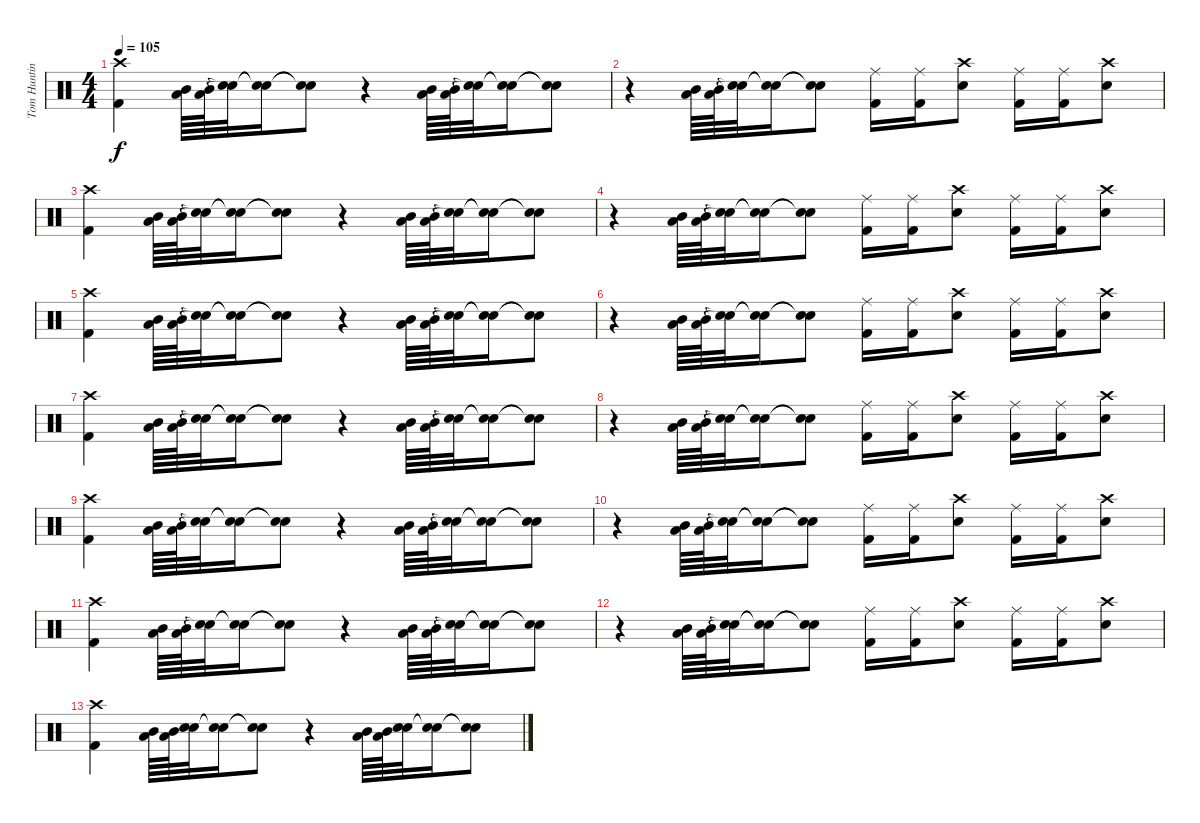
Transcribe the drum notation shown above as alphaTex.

\track ("Tom Hunting" "Tom Huntin") {instrument percussion}
\staff {score}
\articulation defaults
\ts (4 4)
\tempo 105
\clef neutral
\ks c
("Kick (hit) 2" "Crash high (hit)").4{dy f} ("Low Tom (hit)" "Mid Tom (hit)").64 ("Low Tom (hit)" "Mid Tom (hit)").64 ("Snare (hit)"{t} "Snare (hit)"{t}).32 ("Snare (hit)"{t} "Snare (hit)"{t}).16 ("Snare (hit)"{t} "Snare (hit)"{t}).8 r.4 ("Low Tom (hit)" "Mid Tom (hit)").64 ("Low Tom (hit)" "Mid Tom (hit)").64 ("Snare (hit)"{t} "Snare (hit)"{t}).32 ("Snare (hit)"{t} "Snare (hit)"{t}).16 ("Snare (hit)"{t} "Snare (hit)"{t}).8 |
r.4 ("Low Tom (hit)" "Mid Tom (hit)").64 ("Low Tom (hit)" "Mid Tom (hit)").64 ("Snare (hit)"{t} "Snare (hit)"{t}).32 ("Snare (hit)"{t} "Snare (hit)"{t}).16 ("Snare (hit)"{t} "Snare (hit)"{t}).8 ("Kick (hit) 2" "Ride (middle)").16 ("Kick (hit) 2" "Ride (middle)").16 ("Crash high (hit)" "Snare (hit) 2").8 ("Kick (hit) 2" "Ride (middle)").16 ("Kick (hit) 2" "Ride (middle)").16 ("Crash high (hit)" "Snare (hit) 2").8 |
("Kick (hit) 2" "Crash high (hit)").4 ("Low Tom (hit)" "Mid Tom (hit)").64 ("Low Tom (hit)" "Mid Tom (hit)").64 ("Snare (hit)"{t} "Snare (hit)"{t}).32 ("Snare (hit)"{t} "Snare (hit)"{t}).16 ("Snare (hit)"{t} "Snare (hit)"{t}).8 r.4 ("Low Tom (hit)" "Mid Tom (hit)").64 ("Low Tom (hit)" "Mid Tom (hit)").64 ("Snare (hit)"{t} "Snare (hit)"{t}).32 ("Snare (hit)"{t} "Snare (hit)"{t}).16 ("Snare (hit)"{t} "Snare (hit)"{t}).8 |
r.4 ("Low Tom (hit)" "Mid Tom (hit)").64 ("Low Tom (hit)" "Mid Tom (hit)").64 ("Snare (hit)"{t} "Snare (hit)"{t}).32 ("Snare (hit)"{t} "Snare (hit)"{t}).16 ("Snare (hit)"{t} "Snare (hit)"{t}).8 ("Kick (hit) 2" "Ride (middle)").16 ("Kick (hit) 2" "Ride (middle)").16 ("Crash high (hit)" "Snare (hit) 2").8 ("Kick (hit) 2" "Ride (middle)").16 ("Kick (hit) 2" "Ride (middle)").16 ("Crash high (hit)" "Snare (hit) 2").8 |
("Kick (hit) 2" "Crash high (hit)").4 ("Low Tom (hit)" "Mid Tom (hit)").64 ("Low Tom (hit)" "Mid Tom (hit)").64 ("Snare (hit)"{t} "Snare (hit)"{t}).32 ("Snare (hit)"{t} "Snare (hit)"{t}).16 ("Snare (hit)"{t} "Snare (hit)"{t}).8 r.4 ("Low Tom (hit)" "Mid Tom (hit)").64 ("Low Tom (hit)" "Mid Tom (hit)").64 ("Snare (hit)"{t} "Snare (hit)"{t}).32 ("Snare (hit)"{t} "Snare (hit)"{t}).16 ("Snare (hit)"{t} "Snare (hit)"{t}).8 |
r.4 ("Low Tom (hit)" "Mid Tom (hit)").64 ("Low Tom (hit)" "Mid Tom (hit)").64 ("Snare (hit)"{t} "Snare (hit)"{t}).32 ("Snare (hit)"{t} "Snare (hit)"{t}).16 ("Snare (hit)"{t} "Snare (hit)"{t}).8 ("Kick (hit) 2" "Ride (middle)").16 ("Kick (hit) 2" "Ride (middle)").16 ("Crash high (hit)" "Snare (hit) 2").8 ("Kick (hit) 2" "Ride (middle)").16 ("Kick (hit) 2" "Ride (middle)").16 ("Crash high (hit)" "Snare (hit) 2").8 |
("Kick (hit) 2" "Crash high (hit)").4 ("Low Tom (hit)" "Mid Tom (hit)").64 ("Low Tom (hit)" "Mid Tom (hit)").64 ("Snare (hit)"{t} "Snare (hit)"{t}).32 ("Snare (hit)"{t} "Snare (hit)"{t}).16 ("Snare (hit)"{t} "Snare (hit)"{t}).8 r.4 ("Low Tom (hit)" "Mid Tom (hit)").64 ("Low Tom (hit)" "Mid Tom (hit)").64 ("Snare (hit)"{t} "Snare (hit)"{t}).32 ("Snare (hit)"{t} "Snare (hit)"{t}).16 ("Snare (hit)"{t} "Snare (hit)"{t}).8 |
r.4 ("Low Tom (hit)" "Mid Tom (hit)").64 ("Low Tom (hit)" "Mid Tom (hit)").64 ("Snare (hit)"{t} "Snare (hit)"{t}).32 ("Snare (hit)"{t} "Snare (hit)"{t}).16 ("Snare (hit)"{t} "Snare (hit)"{t}).8 ("Kick (hit) 2" "Ride (middle)").16 ("Kick (hit) 2" "Ride (middle)").16 ("Crash high (hit)" "Snare (hit) 2").8 ("Kick (hit) 2" "Ride (middle)").16 ("Kick (hit) 2" "Ride (middle)").16 ("Crash high (hit)" "Snare (hit) 2").8 |
("Kick (hit) 2" "Crash high (hit)").4 ("Low Tom (hit)" "Mid Tom (hit)").64 ("Low Tom (hit)" "Mid Tom (hit)").64 ("Snare (hit)"{t} "Snare (hit)"{t}).32 ("Snare (hit)"{t} "Snare (hit)"{t}).16 ("Snare (hit)"{t} "Snare (hit)"{t}).8 r.4 ("Low Tom (hit)" "Mid Tom (hit)").64 ("Low Tom (hit)" "Mid Tom (hit)").64 ("Snare (hit)"{t} "Snare (hit)"{t}).32 ("Snare (hit)"{t} "Snare (hit)"{t}).16 ("Snare (hit)"{t} "Snare (hit)"{t}).8 |
r.4 ("Low Tom (hit)" "Mid Tom (hit)").64 ("Low Tom (hit)" "Mid Tom (hit)").64 ("Snare (hit)"{t} "Snare (hit)"{t}).32 ("Snare (hit)"{t} "Snare (hit)"{t}).16 ("Snare (hit)"{t} "Snare (hit)"{t}).8 ("Kick (hit) 2" "Ride (middle)").16 ("Kick (hit) 2" "Ride (middle)").16 ("Crash high (hit)" "Snare (hit) 2").8 ("Kick (hit) 2" "Ride (middle)").16 ("Kick (hit) 2" "Ride (middle)").16 ("Crash high (hit)" "Snare (hit) 2").8 |
("Kick (hit) 2" "Crash high (hit)").4 ("Low Tom (hit)" "Mid Tom (hit)").64 ("Low Tom (hit)" "Mid Tom (hit)").64 ("Snare (hit)"{t} "Snare (hit)"{t}).32 ("Snare (hit)"{t} "Snare (hit)"{t}).16 ("Snare (hit)"{t} "Snare (hit)"{t}).8 r.4 ("Low Tom (hit)" "Mid Tom (hit)").64 ("Low Tom (hit)" "Mid Tom (hit)").64 ("Snare (hit)"{t} "Snare (hit)"{t}).32 ("Snare (hit)"{t} "Snare (hit)"{t}).16 ("Snare (hit)"{t} "Snare (hit)"{t}).8 |
r.4 ("Low Tom (hit)" "Mid Tom (hit)").64 ("Low Tom (hit)" "Mid Tom (hit)").64 ("Snare (hit)"{t} "Snare (hit)"{t}).32 ("Snare (hit)"{t} "Snare (hit)"{t}).16 ("Snare (hit)"{t} "Snare (hit)"{t}).8 ("Kick (hit) 2" "Ride (middle)").16 ("Kick (hit) 2" "Ride (middle)").16 ("Crash high (hit)" "Snare (hit) 2").8 ("Kick (hit) 2" "Ride (middle)").16 ("Kick (hit) 2" "Ride (middle)").16 ("Crash high (hit)" "Snare (hit) 2").8 |
("Kick (hit) 2" "Crash high (hit)").4 ("Low Tom (hit)" "Mid Tom (hit)").64 ("Low Tom (hit)" "Mid Tom (hit)").64 ("Snare (hit)"{t} "Snare (hit)"{t}).32 ("Snare (hit)"{t} "Snare (hit)"{t}).16 ("Snare (hit)"{t} "Snare (hit)"{t}).8 r.4 ("Low Tom (hit)" "Mid Tom (hit)").64 ("Low Tom (hit)" "Mid Tom (hit)").64 ("Snare (hit)"{t} "Snare (hit)"{t}).32 ("Snare (hit)"{t} "Snare (hit)"{t}).16 ("Snare (hit)"{t} "Snare (hit)"{t}).8
